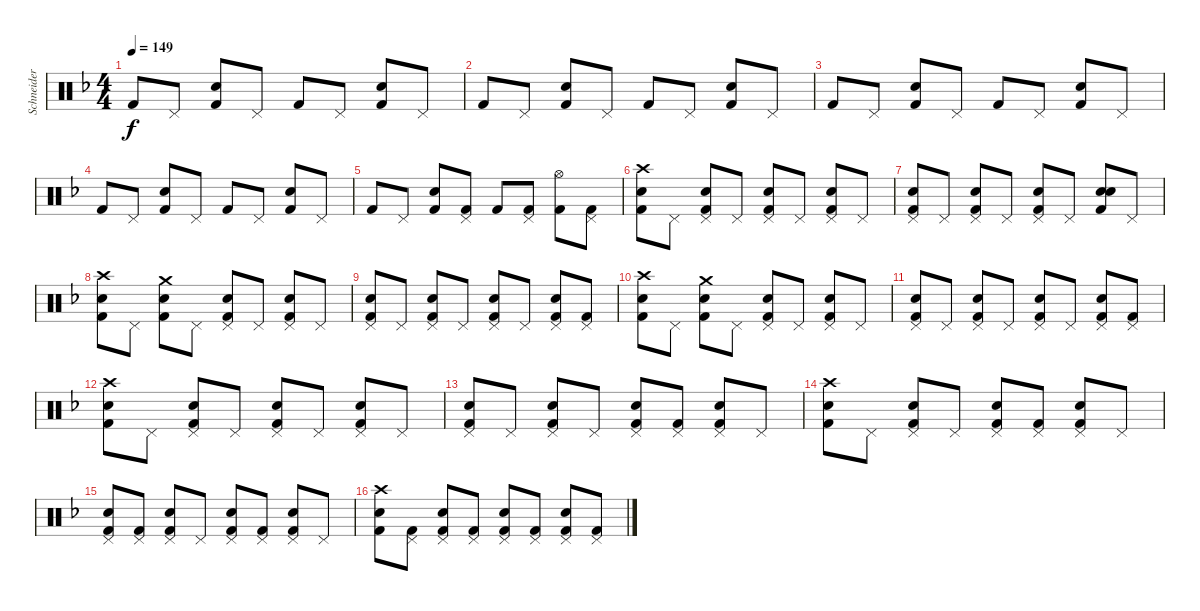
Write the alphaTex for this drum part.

\track ("Schneider" "Schneider") {instrument percussion}
\staff {score}
\articulation defaults
\ts (4 4)
\tempo 149
\clef neutral
\ks dminor "Kick (hit) 2".8{dy f} "Pedal Hi-Hat (hit)".8
("Snare (hit) 2" "Kick (hit) 2").8 "Pedal Hi-Hat (hit)".8 "Kick (hit) 2".8 "Pedal Hi-Hat (hit)".8 ("Snare (hit) 2" "Kick (hit) 2").8 "Pedal Hi-Hat (hit)".8 |
"Kick (hit) 2".8 "Pedal Hi-Hat (hit)".8 ("Snare (hit) 2" "Kick (hit) 2").8 "Pedal Hi-Hat (hit)".8 "Kick (hit) 2".8 "Pedal Hi-Hat (hit)".8 ("Snare (hit) 2" "Kick (hit) 2").8 "Pedal Hi-Hat (hit)".8 |
"Kick (hit) 2".8 "Pedal Hi-Hat (hit)".8 ("Snare (hit) 2" "Kick (hit) 2").8 "Pedal Hi-Hat (hit)".8 "Kick (hit) 2".8 "Pedal Hi-Hat (hit)".8 ("Snare (hit) 2" "Kick (hit) 2").8 "Pedal Hi-Hat (hit)".8 |
"Kick (hit) 2".8 "Pedal Hi-Hat (hit)".8 ("Snare (hit) 2" "Kick (hit) 2").8 "Pedal Hi-Hat (hit)".8 "Kick (hit) 2".8 "Pedal Hi-Hat (hit)".8 ("Snare (hit) 2" "Kick (hit) 2").8 "Pedal Hi-Hat (hit)".8 |
"Kick (hit) 2".8 "Pedal Hi-Hat (hit)".8 ("Snare (hit) 2" "Kick (hit) 2").8 ("Pedal Hi-Hat (hit)" "Kick (hit) 2").8 "Kick (hit) 2".8 ("Pedal Hi-Hat (hit)" "Kick (hit) 2").8 ("Hi-Hat (open)" "Kick (hit) 2").8 ("Pedal Hi-Hat (hit)" "Kick (hit) 2").8 |
("Crash high (hit)" "Snare (hit) 2" "Kick (hit) 2").8 "Pedal Hi-Hat (hit)".8 ("Pedal Hi-Hat (hit)" "Snare (hit) 2" "Kick (hit) 2").8 "Pedal Hi-Hat (hit)".8 ("Pedal Hi-Hat (hit)" "Snare (hit) 2" "Kick (hit) 2").8 "Pedal Hi-Hat (hit)".8 ("Pedal Hi-Hat (hit)" "Snare (hit) 2" "Kick (hit) 2").8 "Pedal Hi-Hat (hit)".8 |
("Pedal Hi-Hat (hit)" "Snare (hit) 2" "Kick (hit) 2").8 "Pedal Hi-Hat (hit)".8 ("Pedal Hi-Hat (hit)" "Snare (hit) 2" "Kick (hit) 2").8 "Pedal Hi-Hat (hit)".8 ("Pedal Hi-Hat (hit)" "Snare (hit) 2" "Kick (hit) 2").8 "Pedal Hi-Hat (hit)".8 ("Snare (hit)" "Snare (hit) 2" "Kick (hit) 2").8 "Pedal Hi-Hat (hit)".8 |
("Crash high (hit)" "Snare (hit) 2" "Kick (hit) 2").8 "Pedal Hi-Hat (hit)".8 ("Crash medium (hit)" "Snare (hit) 2" "Kick (hit) 2").8 "Pedal Hi-Hat (hit)".8 ("Pedal Hi-Hat (hit)" "Snare (hit) 2" "Kick (hit) 2").8 "Pedal Hi-Hat (hit)".8 ("Pedal Hi-Hat (hit)" "Snare (hit) 2" "Kick (hit) 2").8 "Pedal Hi-Hat (hit)".8 |
("Pedal Hi-Hat (hit)" "Snare (hit) 2" "Kick (hit) 2").8 "Pedal Hi-Hat (hit)".8 ("Pedal Hi-Hat (hit)" "Snare (hit) 2" "Kick (hit) 2").8 "Pedal Hi-Hat (hit)".8 ("Pedal Hi-Hat (hit)" "Snare (hit) 2" "Kick (hit) 2").8 "Pedal Hi-Hat (hit)".8 ("Pedal Hi-Hat (hit)" "Snare (hit) 2" "Kick (hit) 2").8 ("Pedal Hi-Hat (hit)" "Kick (hit) 2").8 |
("Crash high (hit)" "Snare (hit) 2" "Kick (hit) 2").8 "Pedal Hi-Hat (hit)".8 ("Crash medium (hit)" "Snare (hit) 2" "Kick (hit) 2").8 "Pedal Hi-Hat (hit)".8 ("Pedal Hi-Hat (hit)" "Snare (hit) 2" "Kick (hit) 2").8 "Pedal Hi-Hat (hit)".8 ("Pedal Hi-Hat (hit)" "Snare (hit) 2" "Kick (hit) 2").8 "Pedal Hi-Hat (hit)".8 |
("Pedal Hi-Hat (hit)" "Snare (hit) 2" "Kick (hit) 2").8 "Pedal Hi-Hat (hit)".8 ("Pedal Hi-Hat (hit)" "Snare (hit) 2" "Kick (hit) 2").8 "Pedal Hi-Hat (hit)".8 ("Pedal Hi-Hat (hit)" "Snare (hit) 2" "Kick (hit) 2").8 "Pedal Hi-Hat (hit)".8 ("Pedal Hi-Hat (hit)" "Snare (hit) 2" "Kick (hit) 2").8 ("Pedal Hi-Hat (hit)" "Kick (hit) 2").8 |
("Crash high (hit)" "Snare (hit) 2" "Kick (hit) 2").8 "Pedal Hi-Hat (hit)".8 ("Pedal Hi-Hat (hit)" "Snare (hit) 2" "Kick (hit) 2").8 "Pedal Hi-Hat (hit)".8 ("Pedal Hi-Hat (hit)" "Snare (hit) 2" "Kick (hit) 2").8 "Pedal Hi-Hat (hit)".8 ("Pedal Hi-Hat (hit)" "Snare (hit) 2" "Kick (hit) 2").8 "Pedal Hi-Hat (hit)".8 |
("Pedal Hi-Hat (hit)" "Snare (hit) 2" "Kick (hit) 2").8 "Pedal Hi-Hat (hit)".8 ("Pedal Hi-Hat (hit)" "Snare (hit) 2" "Kick (hit) 2").8 "Pedal Hi-Hat (hit)".8 ("Pedal Hi-Hat (hit)" "Snare (hit) 2" "Kick (hit) 2").8 ("Pedal Hi-Hat (hit)" "Kick (hit) 2").8 ("Pedal Hi-Hat (hit)" "Snare (hit) 2" "Kick (hit) 2").8 "Pedal Hi-Hat (hit)".8 |
("Crash high (hit)" "Snare (hit) 2" "Kick (hit) 2").8 "Pedal Hi-Hat (hit)".8 ("Pedal Hi-Hat (hit)" "Snare (hit) 2" "Kick (hit) 2").8 "Pedal Hi-Hat (hit)".8 ("Pedal Hi-Hat (hit)" "Snare (hit) 2" "Kick (hit) 2").8 ("Pedal Hi-Hat (hit)" "Kick (hit) 2").8 ("Pedal Hi-Hat (hit)" "Snare (hit) 2" "Kick (hit) 2").8 "Pedal Hi-Hat (hit)".8 |
("Pedal Hi-Hat (hit)" "Snare (hit) 2" "Kick (hit) 2").8 ("Pedal Hi-Hat (hit)" "Kick (hit) 2").8 ("Pedal Hi-Hat (hit)" "Snare (hit) 2" "Kick (hit) 2").8 "Pedal Hi-Hat (hit)".8 ("Pedal Hi-Hat (hit)" "Snare (hit) 2" "Kick (hit) 2").8 ("Pedal Hi-Hat (hit)" "Kick (hit) 2").8 ("Pedal Hi-Hat (hit)" "Snare (hit) 2" "Kick (hit) 2").8 "Pedal Hi-Hat (hit)".8 |
("Crash high (hit)" "Snare (hit) 2" "Kick (hit) 2").8 ("Pedal Hi-Hat (hit)" "Kick (hit) 2").8 ("Pedal Hi-Hat (hit)" "Snare (hit) 2" "Kick (hit) 2").8 ("Pedal Hi-Hat (hit)" "Kick (hit) 2").8 ("Pedal Hi-Hat (hit)" "Snare (hit) 2" "Kick (hit) 2").8 ("Pedal Hi-Hat (hit)" "Kick (hit) 2").8 ("Pedal Hi-Hat (hit)" "Snare (hit) 2" "Kick (hit) 2").8 ("Pedal Hi-Hat (hit)" "Kick (hit) 2").8
